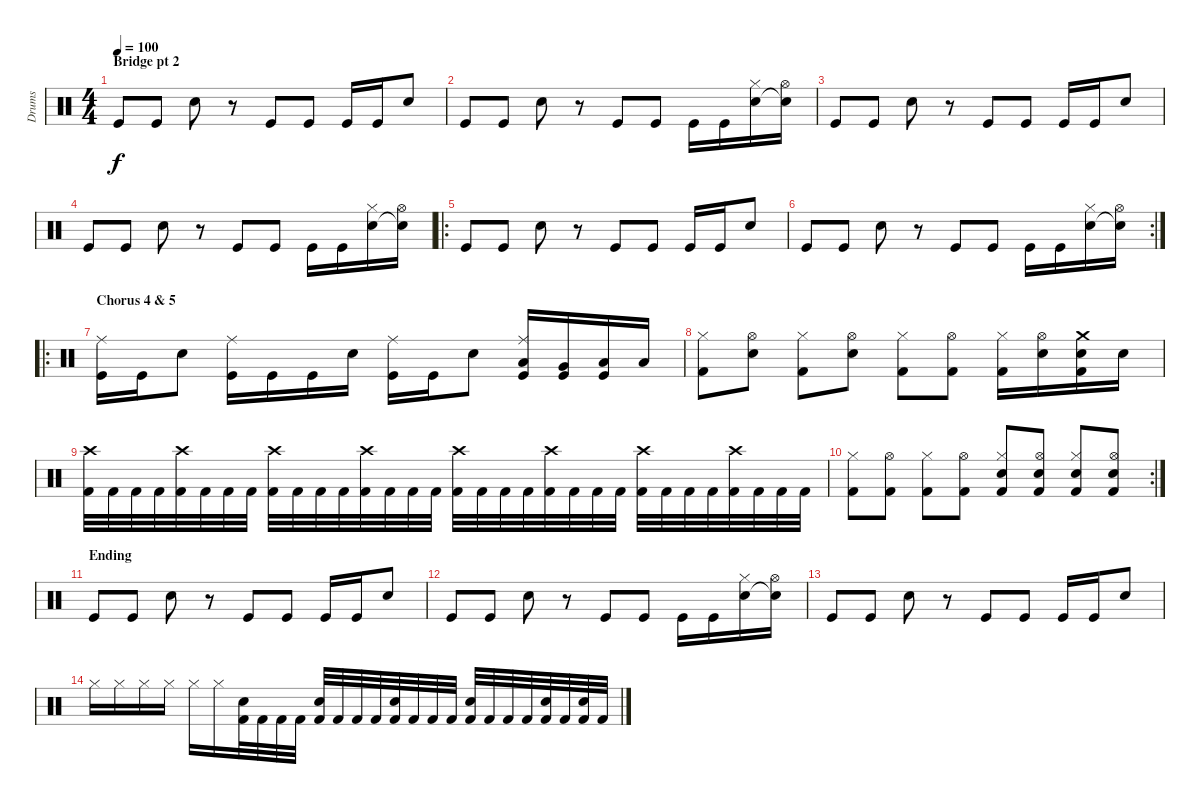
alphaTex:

\track ("Drums" "Drums") {instrument percussion}
\staff {score}
\articulation defaults
\ts (4 4)
\section ("" "Bridge pt 2")
\tempo 100
\clef neutral
\ks c "Kick (hit)".8{dy f} "Kick (hit)".8 "Electric Snare (hit)".8
r.8 "Kick (hit)".8 "Kick (hit)".8 "Kick (hit)".16 "Kick (hit)".16 "Electric Snare (hit)".8 |
"Kick (hit)".8 "Kick (hit)".8 "Electric Snare (hit)".8 r.8 "Kick (hit)".8 "Kick (hit)".8 "Kick (hit)".16 "Kick (hit)".16 ("Hi-Hat (closed)" "Electric Snare (hit)").16 ("Hi-Hat (open)" "Snare (hit)"{t}).16 |
"Kick (hit)".8 "Kick (hit)".8 "Electric Snare (hit)".8 r.8 "Kick (hit)".8 "Kick (hit)".8 "Kick (hit)".16 "Kick (hit)".16 "Electric Snare (hit)".8 |
"Kick (hit)".8 "Kick (hit)".8 "Electric Snare (hit)".8 r.8 "Kick (hit)".8 "Kick (hit)".8 "Kick (hit)".16 "Kick (hit)".16 ("Hi-Hat (closed)" "Electric Snare (hit)").16 ("Hi-Hat (open)" "Snare (hit)"{t}).16 |
\ro "Kick (hit)".8 "Kick (hit)".8 "Electric Snare (hit)".8
r.8 "Kick (hit)".8 "Kick (hit)".8 "Kick (hit)".16 "Kick (hit)".16 "Electric Snare (hit)".8 |
\rc 2 "Kick (hit)".8 "Kick (hit)".8 "Electric Snare (hit)".8
r.8 "Kick (hit)".8 "Kick (hit)".8 "Kick (hit)".16 "Kick (hit)".16 ("Hi-Hat (closed)" "Electric Snare (hit)").16 ("Hi-Hat (open)" "Snare (hit)"{t}).16 |
\ro
\section ("" "Chorus 4 & 5")
("Ride (middle)" "Kick (hit)").16 "Kick (hit)".16 "Electric Snare (hit)".8 ("Ride (middle)" "Kick (hit)").16 "Kick (hit)".16 "Kick (hit)".16 "Electric Snare (hit)".16 ("Ride (middle)" "Kick (hit)").16 "Kick (hit)".16 "Electric Snare (hit)".8 ("Ride (middle)" "Low Tom (hit)" "Kick (hit)").16 ("Very Low Tom (hit)" "Kick (hit)").16 ("Low Floor Tom (hit)" "Kick (hit)").16 "Low Floor Tom (hit)".16 |
("Hi-Hat (closed)" "Kick (hit) 2").8 ("Hi-Hat (open)" "Electric Snare (hit)").8 ("Hi-Hat (closed)" "Kick (hit) 2").8 ("Hi-Hat (open)" "Electric Snare (hit)").8 ("Hi-Hat (closed)" "Kick (hit) 2").8 ("Hi-Hat (open)" "Kick (hit) 2").8 ("Hi-Hat (closed)" "Kick (hit) 2").16 ("Hi-Hat (open)" "Electric Snare (hit)").16 ("Crash medium (hit)" "Electric Snare (hit)" "Kick (hit) 2").16 "Electric Snare (hit)".16 |
("Crash high (hit)" "Kick (hit) 2").32 "Kick (hit) 2".32 "Kick (hit) 2".32 "Kick (hit) 2".32 ("Crash high (hit)" "Kick (hit) 2").32 "Kick (hit) 2".32 "Kick (hit) 2".32 "Kick (hit) 2".32 ("Crash high (hit)" "Kick (hit) 2").32 "Kick (hit) 2".32 "Kick (hit) 2".32 "Kick (hit) 2".32 ("Crash high (hit)" "Kick (hit) 2").32 "Kick (hit) 2".32 "Kick (hit) 2".32 "Kick (hit) 2".32 ("Crash high (hit)" "Kick (hit) 2").32 "Kick (hit) 2".32 "Kick (hit) 2".32 "Kick (hit) 2".32 ("Crash high (hit)" "Kick (hit) 2").32 "Kick (hit) 2".32 "Kick (hit) 2".32 "Kick (hit) 2".32 ("Crash high (hit)" "Kick (hit) 2").32 "Kick (hit) 2".32 "Kick (hit) 2".32 "Kick (hit) 2".32 ("Crash high (hit)" "Kick (hit) 2").32 "Kick (hit) 2".32 "Kick (hit) 2".32 "Kick (hit) 2".32 |
\rc 2
("Hi-Hat (closed)" "Kick (hit) 2").8 ("Hi-Hat (open)" "Kick (hit) 2").8 ("Hi-Hat (closed)" "Kick (hit) 2").8 ("Hi-Hat (open)" "Kick (hit) 2").8 ("Hi-Hat (closed)" "Electric Snare (hit)" "Kick (hit) 2").8 ("Hi-Hat (open)" "Electric Snare (hit)" "Kick (hit) 2").8 ("Hi-Hat (closed)" "Electric Snare (hit)" "Kick (hit) 2").8 ("Hi-Hat (open)" "Electric Snare (hit)" "Kick (hit) 2").8 |
\section ("" "Ending")
"Kick (hit)".8 "Kick (hit)".8 "Electric Snare (hit)".8 r.8 "Kick (hit)".8 "Kick (hit)".8 "Kick (hit)".16 "Kick (hit)".16 "Electric Snare (hit)".8 |
"Kick (hit)".8 "Kick (hit)".8 "Electric Snare (hit)".8 r.8 "Kick (hit)".8 "Kick (hit)".8 "Kick (hit)".16 "Kick (hit)".16 ("Hi-Hat (closed)" "Electric Snare (hit)").16 ("Hi-Hat (open)" "Snare (hit)"{t}).16 |
"Kick (hit)".8 "Kick (hit)".8 "Electric Snare (hit)".8 r.8 "Kick (hit)".8 "Kick (hit)".8 "Kick (hit)".16 "Kick (hit)".16 "Electric Snare (hit)".8 |
"Hi-Hat (closed)".16 "Hi-Hat (closed)".16 "Hi-Hat (closed)".16 "Hi-Hat (closed)".16 "Hi-Hat (closed)".16 "Hi-Hat (closed)".16 ("Electric Snare (hit)" "Kick (hit) 2").32 "Kick (hit) 2".32 "Kick (hit) 2".32 "Kick (hit) 2".32 ("Electric Snare (hit)" "Kick (hit) 2").32 "Kick (hit) 2".32 "Kick (hit) 2".32 "Kick (hit) 2".32 ("Electric Snare (hit)" "Kick (hit) 2").32 "Kick (hit) 2".32 "Kick (hit) 2".32 "Kick (hit) 2".32 ("Electric Snare (hit)" "Kick (hit) 2").32 "Kick (hit) 2".32 "Kick (hit) 2".32 "Kick (hit) 2".32 ("Electric Snare (hit)" "Kick (hit) 2").32 "Kick (hit) 2".32 ("Electric Snare (hit)" "Kick (hit) 2").32 "Kick (hit) 2".32
